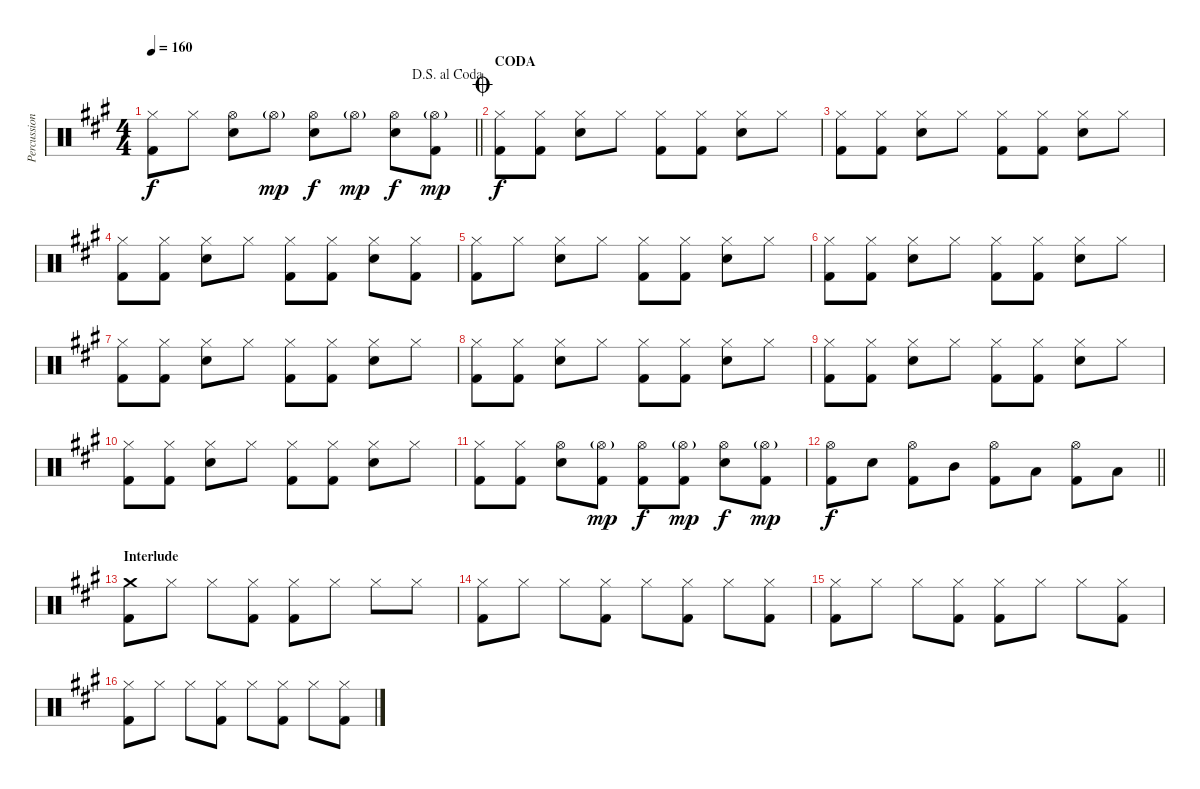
\track ("Percussion" "Percussion") {instrument percussion}
\staff {score}
\articulation defaults
\ts (4 4)
\jump dalsegnoalcoda
\tempo 160
\clef neutral
\barLineRight lightlight
\ks a
("Hi-Hat (closed)" "Kick (hit) 2").8{dy f} "Hi-Hat (closed)".8 ("Hi-Hat (open)" "Electric Snare (hit)").8 "Hi-Hat (open)"{g}.8{dy mp} ("Hi-Hat (open)" "Electric Snare (hit)").8{dy f} "Hi-Hat (open)"{g}.8{dy mp} ("Hi-Hat (open)" "Electric Snare (hit)").8{dy f} ("Hi-Hat (open)"{g} "Kick (hit) 2").8{dy mp} |
\section ("" "CODA")
\jump coda
("Hi-Hat (closed)" "Kick (hit) 2").8{dy f} ("Hi-Hat (closed)" "Kick (hit) 2").8 ("Hi-Hat (closed)" "Electric Snare (hit)").8 "Hi-Hat (closed)".8 ("Hi-Hat (closed)" "Kick (hit) 2").8 ("Hi-Hat (closed)" "Kick (hit) 2").8 ("Hi-Hat (closed)" "Electric Snare (hit)").8 "Hi-Hat (closed)".8 |
("Hi-Hat (closed)" "Kick (hit) 2").8 ("Hi-Hat (closed)" "Kick (hit) 2").8 ("Hi-Hat (closed)" "Electric Snare (hit)").8 "Hi-Hat (closed)".8 ("Hi-Hat (closed)" "Kick (hit) 2").8 ("Hi-Hat (closed)" "Kick (hit) 2").8 ("Hi-Hat (closed)" "Electric Snare (hit)").8 "Hi-Hat (closed)".8 |
("Hi-Hat (closed)" "Kick (hit) 2").8 ("Hi-Hat (closed)" "Kick (hit) 2").8 ("Hi-Hat (closed)" "Electric Snare (hit)").8 "Hi-Hat (closed)".8 ("Hi-Hat (closed)" "Kick (hit) 2").8 ("Hi-Hat (closed)" "Kick (hit) 2").8 ("Hi-Hat (closed)" "Electric Snare (hit)").8 ("Hi-Hat (closed)" "Kick (hit) 2").8 |
("Hi-Hat (closed)" "Kick (hit) 2").8 "Hi-Hat (closed)".8 ("Hi-Hat (closed)" "Electric Snare (hit)").8 "Hi-Hat (closed)".8 ("Hi-Hat (closed)" "Kick (hit) 2").8 ("Hi-Hat (closed)" "Kick (hit) 2").8 ("Hi-Hat (closed)" "Electric Snare (hit)").8 "Hi-Hat (closed)".8 |
("Hi-Hat (closed)" "Kick (hit) 2").8 ("Hi-Hat (closed)" "Kick (hit) 2").8 ("Hi-Hat (closed)" "Electric Snare (hit)").8 "Hi-Hat (closed)".8 ("Hi-Hat (closed)" "Kick (hit) 2").8 ("Hi-Hat (closed)" "Kick (hit) 2").8 ("Hi-Hat (closed)" "Electric Snare (hit)").8 "Hi-Hat (closed)".8 |
("Hi-Hat (closed)" "Kick (hit) 2").8 ("Hi-Hat (closed)" "Kick (hit) 2").8 ("Hi-Hat (closed)" "Electric Snare (hit)").8 "Hi-Hat (closed)".8 ("Hi-Hat (closed)" "Kick (hit) 2").8 ("Hi-Hat (closed)" "Kick (hit) 2").8 ("Hi-Hat (closed)" "Electric Snare (hit)").8 "Hi-Hat (closed)".8 |
("Hi-Hat (closed)" "Kick (hit) 2").8 ("Hi-Hat (closed)" "Kick (hit) 2").8 ("Hi-Hat (closed)" "Electric Snare (hit)").8 "Hi-Hat (closed)".8 ("Hi-Hat (closed)" "Kick (hit) 2").8 ("Hi-Hat (closed)" "Kick (hit) 2").8 ("Hi-Hat (closed)" "Electric Snare (hit)").8 "Hi-Hat (closed)".8 |
("Hi-Hat (closed)" "Kick (hit) 2").8 ("Hi-Hat (closed)" "Kick (hit) 2").8 ("Hi-Hat (closed)" "Electric Snare (hit)").8 "Hi-Hat (closed)".8 ("Hi-Hat (closed)" "Kick (hit) 2").8 ("Hi-Hat (closed)" "Kick (hit) 2").8 ("Hi-Hat (closed)" "Electric Snare (hit)").8 "Hi-Hat (closed)".8 |
("Hi-Hat (closed)" "Kick (hit) 2").8 ("Hi-Hat (closed)" "Kick (hit) 2").8 ("Hi-Hat (closed)" "Electric Snare (hit)").8 "Hi-Hat (closed)".8 ("Hi-Hat (closed)" "Kick (hit) 2").8 ("Hi-Hat (closed)" "Kick (hit) 2").8 ("Hi-Hat (closed)" "Electric Snare (hit)").8 "Hi-Hat (closed)".8 |
("Hi-Hat (closed)" "Kick (hit) 2").8 ("Hi-Hat (closed)" "Kick (hit) 2").8 ("Hi-Hat (open)" "Electric Snare (hit)").8 ("Hi-Hat (open)"{g} "Kick (hit) 2").8{dy mp} ("Hi-Hat (open)" "Kick (hit) 2").8{dy f} ("Hi-Hat (open)"{g} "Kick (hit) 2").8{dy mp} ("Hi-Hat (open)" "Electric Snare (hit)").8{dy f} ("Hi-Hat (open)"{g} "Kick (hit) 2").8{dy mp} |
\barLineRight lightlight
("Hi-Hat (open)" "Kick (hit) 2").8{dy f} "Electric Snare (hit)".8 ("Hi-Hat (open)" "Kick (hit) 2").8 "Mid Tom (hit)".8 ("Hi-Hat (open)" "Kick (hit) 2").8 "Low Tom (hit)".8 ("Hi-Hat (open)" "Kick (hit) 2").8 "Low Floor Tom (hit)".8 |
\section ("" "Interlude")
("Crash medium (hit)" "Kick (hit) 2").8 "Hi-Hat (closed)".8 "Hi-Hat (closed)".8 ("Hi-Hat (closed)" "Kick (hit) 2").8 ("Hi-Hat (closed)" "Kick (hit) 2").8 "Hi-Hat (closed)".8 "Hi-Hat (closed)".8 "Hi-Hat (closed)".8 |
("Hi-Hat (closed)" "Kick (hit) 2").8 "Hi-Hat (closed)".8 "Hi-Hat (closed)".8 ("Hi-Hat (closed)" "Kick (hit) 2").8 "Hi-Hat (closed)".8 ("Hi-Hat (closed)" "Kick (hit) 2").8 "Hi-Hat (closed)".8 ("Hi-Hat (closed)" "Kick (hit) 2").8 |
("Hi-Hat (closed)" "Kick (hit) 2").8 "Hi-Hat (closed)".8 "Hi-Hat (closed)".8 ("Hi-Hat (closed)" "Kick (hit) 2").8 ("Hi-Hat (closed)" "Kick (hit) 2").8 "Hi-Hat (closed)".8 "Hi-Hat (closed)".8 ("Hi-Hat (closed)" "Kick (hit) 2").8 |
("Hi-Hat (closed)" "Kick (hit) 2").8 "Hi-Hat (closed)".8 "Hi-Hat (closed)".8 ("Hi-Hat (closed)" "Kick (hit) 2").8 "Hi-Hat (closed)".8 ("Hi-Hat (closed)" "Kick (hit) 2").8 "Hi-Hat (closed)".8 ("Hi-Hat (closed)" "Kick (hit) 2").8
